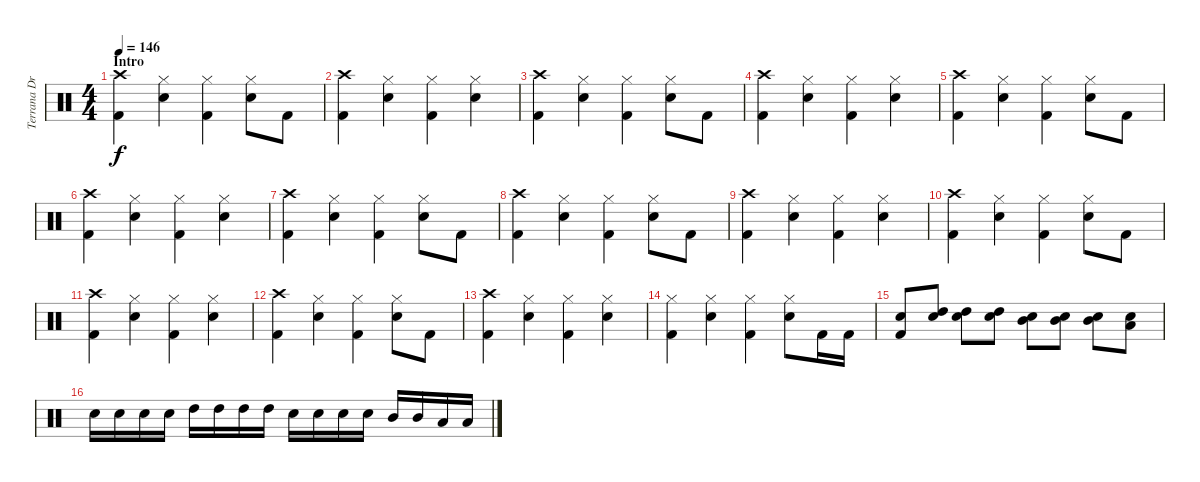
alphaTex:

\track ("Terrana Drums" "Terrana Dr") {instrument percussion}
\staff {score}
\articulation defaults
\ts (4 4)
\section ("" "Intro")
\tempo 146
\clef neutral
\ks c
("Crash high (hit)" "Kick (hit) 2").4{dy f} ("Hi-Hat (closed)" "Electric Snare (hit)").4 ("Hi-Hat (closed)" "Kick (hit) 2").4 ("Hi-Hat (closed)" "Electric Snare (hit)").8 "Kick (hit) 2".8 |
("Crash high (hit)" "Kick (hit) 2").4 ("Hi-Hat (closed)" "Electric Snare (hit)").4 ("Hi-Hat (closed)" "Kick (hit) 2").4 ("Hi-Hat (closed)" "Electric Snare (hit)").4 |
("Crash high (hit)" "Kick (hit) 2").4 ("Hi-Hat (closed)" "Electric Snare (hit)").4 ("Hi-Hat (closed)" "Kick (hit) 2").4 ("Hi-Hat (closed)" "Electric Snare (hit)").8 "Kick (hit) 2".8 |
("Crash high (hit)" "Kick (hit) 2").4 ("Hi-Hat (closed)" "Electric Snare (hit)").4 ("Hi-Hat (closed)" "Kick (hit) 2").4 ("Hi-Hat (closed)" "Electric Snare (hit)").4 |
("Crash high (hit)" "Kick (hit) 2").4 ("Hi-Hat (closed)" "Electric Snare (hit)").4 ("Hi-Hat (closed)" "Kick (hit) 2").4 ("Hi-Hat (closed)" "Electric Snare (hit)").8 "Kick (hit) 2".8 |
("Crash high (hit)" "Kick (hit) 2").4 ("Hi-Hat (closed)" "Electric Snare (hit)").4 ("Hi-Hat (closed)" "Kick (hit) 2").4 ("Hi-Hat (closed)" "Electric Snare (hit)").4 |
("Crash high (hit)" "Kick (hit) 2").4 ("Hi-Hat (closed)" "Electric Snare (hit)").4 ("Hi-Hat (closed)" "Kick (hit) 2").4 ("Hi-Hat (closed)" "Electric Snare (hit)").8 "Kick (hit) 2".8 |
("Crash high (hit)" "Kick (hit) 2").4 ("Hi-Hat (closed)" "Electric Snare (hit)").4 ("Hi-Hat (closed)" "Kick (hit) 2").4 ("Hi-Hat (closed)" "Electric Snare (hit)").8 "Kick (hit) 2".8 |
("Crash high (hit)" "Kick (hit) 2").4 ("Hi-Hat (closed)" "Electric Snare (hit)").4 ("Hi-Hat (closed)" "Kick (hit) 2").4 ("Hi-Hat (closed)" "Electric Snare (hit)").4 |
("Crash high (hit)" "Kick (hit) 2").4 ("Hi-Hat (closed)" "Electric Snare (hit)").4 ("Hi-Hat (closed)" "Kick (hit) 2").4 ("Hi-Hat (closed)" "Electric Snare (hit)").8 "Kick (hit) 2".8 |
("Crash high (hit)" "Kick (hit) 2").4 ("Hi-Hat (closed)" "Electric Snare (hit)").4 ("Hi-Hat (closed)" "Kick (hit) 2").4 ("Hi-Hat (closed)" "Electric Snare (hit)").4 |
("Crash high (hit)" "Kick (hit) 2").4 ("Hi-Hat (closed)" "Electric Snare (hit)").4 ("Hi-Hat (closed)" "Kick (hit) 2").4 ("Hi-Hat (closed)" "Electric Snare (hit)").8 "Kick (hit) 2".8 |
("Crash high (hit)" "Kick (hit) 2").4 ("Hi-Hat (closed)" "Electric Snare (hit)").4 ("Hi-Hat (closed)" "Kick (hit) 2").4 ("Hi-Hat (closed)" "Electric Snare (hit)").4 |
("Hi-Hat (closed)" "Kick (hit) 2").4 ("Hi-Hat (closed)" "Electric Snare (hit)").4 ("Hi-Hat (closed)" "Kick (hit) 2").4 ("Hi-Hat (closed)" "Electric Snare (hit)").8 "Kick (hit) 2".16 "Kick (hit) 2".16 |
("Electric Snare (hit)" "Kick (hit) 2").8 ("High Tom (hit)" "Electric Snare (hit)").8 ("High Tom (hit)" "Electric Snare (hit)").8 ("High Tom (hit)" "Electric Snare (hit)").8 ("Mid Tom (hit)" "Electric Snare (hit)").8 ("Mid Tom (hit)" "Electric Snare (hit)").8 ("Mid Tom (hit)" "Electric Snare (hit)").8 ("Low Tom (hit)" "Electric Snare (hit)").8 |
"Electric Snare (hit)".16 "Electric Snare (hit)".16 "Electric Snare (hit)".16 "Electric Snare (hit)".16 "High Tom (hit)".16 "High Tom (hit)".16 "High Tom (hit)".16 "High Tom (hit)".16 "Electric Snare (hit)".16 "Electric Snare (hit)".16 "Electric Snare (hit)".16 "Electric Snare (hit)".16 "Mid Tom (hit)".16 "Mid Tom (hit)".16 "Low Tom (hit)".16 "Low Tom (hit)".16
